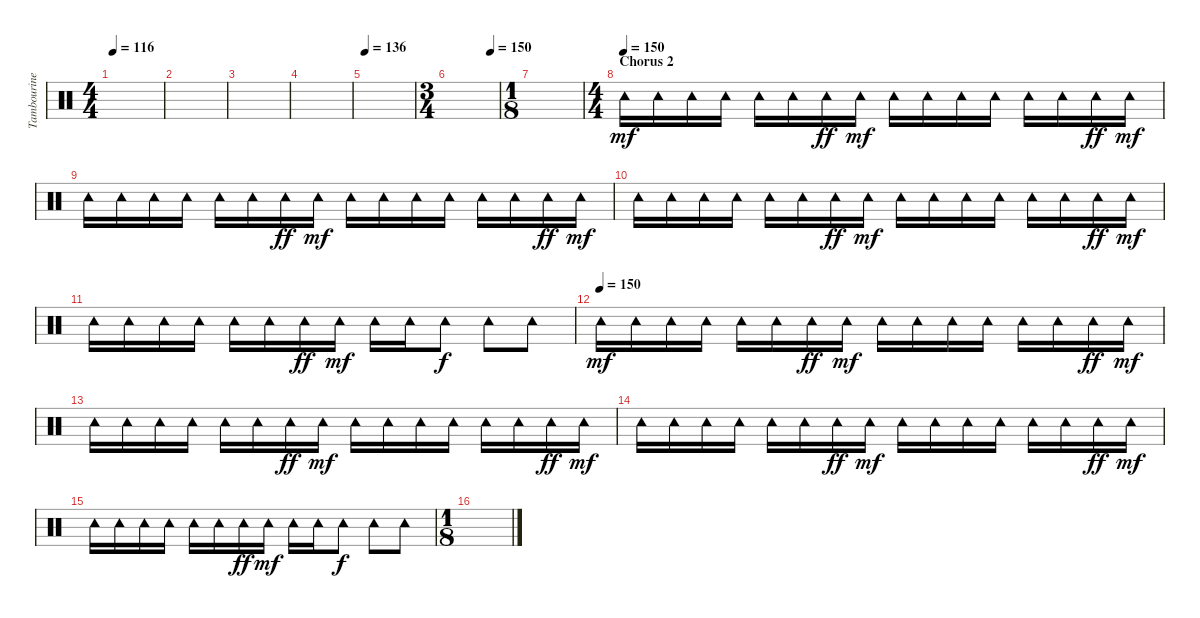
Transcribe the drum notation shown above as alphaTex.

\track ("Tambourine" "Tambourine") {instrument percussion}
\staff {score}
\articulation defaults
\ts (4 4)
\tempo 116
\clef neutral
\ks c
|
|
|
|
\tempo 136
|
\ts (3 4)
\tempo (150 0.8333333333333334)
|
\ts (1 8)
|
\ts (4 4)
\section ("" "Chorus 2")
\tempo (150)
"Tambourine (hit)".16{dy mf} "Tambourine (hit)".16 "Tambourine (hit)".16 "Tambourine (hit)".16 "Tambourine (hit)".16 "Tambourine (hit)".16 "Tambourine (hit)".16{dy ff} "Tambourine (hit)".16{dy mf} "Tambourine (hit)".16 "Tambourine (hit)".16 "Tambourine (hit)".16 "Tambourine (hit)".16 "Tambourine (hit)".16 "Tambourine (hit)".16 "Tambourine (hit)".16{dy ff} "Tambourine (hit)".16{dy mf} |
"Tambourine (hit)".16 "Tambourine (hit)".16 "Tambourine (hit)".16 "Tambourine (hit)".16 "Tambourine (hit)".16 "Tambourine (hit)".16 "Tambourine (hit)".16{dy ff} "Tambourine (hit)".16{dy mf} "Tambourine (hit)".16 "Tambourine (hit)".16 "Tambourine (hit)".16 "Tambourine (hit)".16 "Tambourine (hit)".16 "Tambourine (hit)".16 "Tambourine (hit)".16{dy ff} "Tambourine (hit)".16{dy mf} |
"Tambourine (hit)".16 "Tambourine (hit)".16 "Tambourine (hit)".16 "Tambourine (hit)".16 "Tambourine (hit)".16 "Tambourine (hit)".16 "Tambourine (hit)".16{dy ff} "Tambourine (hit)".16{dy mf} "Tambourine (hit)".16 "Tambourine (hit)".16 "Tambourine (hit)".16 "Tambourine (hit)".16 "Tambourine (hit)".16 "Tambourine (hit)".16 "Tambourine (hit)".16{dy ff} "Tambourine (hit)".16{dy mf} |
"Tambourine (hit)".16 "Tambourine (hit)".16 "Tambourine (hit)".16 "Tambourine (hit)".16 "Tambourine (hit)".16 "Tambourine (hit)".16 "Tambourine (hit)".16{dy ff} "Tambourine (hit)".16{dy mf} "Tambourine (hit)".16 "Tambourine (hit)".16 "Tambourine (hit)".8{dy f} "Tambourine (hit)".8 "Tambourine (hit)".8 |
\tempo (150)
"Tambourine (hit)".16{dy mf} "Tambourine (hit)".16 "Tambourine (hit)".16 "Tambourine (hit)".16 "Tambourine (hit)".16 "Tambourine (hit)".16 "Tambourine (hit)".16{dy ff} "Tambourine (hit)".16{dy mf} "Tambourine (hit)".16 "Tambourine (hit)".16 "Tambourine (hit)".16 "Tambourine (hit)".16 "Tambourine (hit)".16 "Tambourine (hit)".16 "Tambourine (hit)".16{dy ff} "Tambourine (hit)".16{dy mf} |
"Tambourine (hit)".16 "Tambourine (hit)".16 "Tambourine (hit)".16 "Tambourine (hit)".16 "Tambourine (hit)".16 "Tambourine (hit)".16 "Tambourine (hit)".16{dy ff} "Tambourine (hit)".16{dy mf} "Tambourine (hit)".16 "Tambourine (hit)".16 "Tambourine (hit)".16 "Tambourine (hit)".16 "Tambourine (hit)".16 "Tambourine (hit)".16 "Tambourine (hit)".16{dy ff} "Tambourine (hit)".16{dy mf} |
"Tambourine (hit)".16 "Tambourine (hit)".16 "Tambourine (hit)".16 "Tambourine (hit)".16 "Tambourine (hit)".16 "Tambourine (hit)".16 "Tambourine (hit)".16{dy ff} "Tambourine (hit)".16{dy mf} "Tambourine (hit)".16 "Tambourine (hit)".16 "Tambourine (hit)".16 "Tambourine (hit)".16 "Tambourine (hit)".16 "Tambourine (hit)".16 "Tambourine (hit)".16{dy ff} "Tambourine (hit)".16{dy mf} |
"Tambourine (hit)".16 "Tambourine (hit)".16 "Tambourine (hit)".16 "Tambourine (hit)".16 "Tambourine (hit)".16 "Tambourine (hit)".16 "Tambourine (hit)".16{dy ff} "Tambourine (hit)".16{dy mf} "Tambourine (hit)".16 "Tambourine (hit)".16 "Tambourine (hit)".8{dy f} "Tambourine (hit)".8 "Tambourine (hit)".8 |
\ts (1 8)
